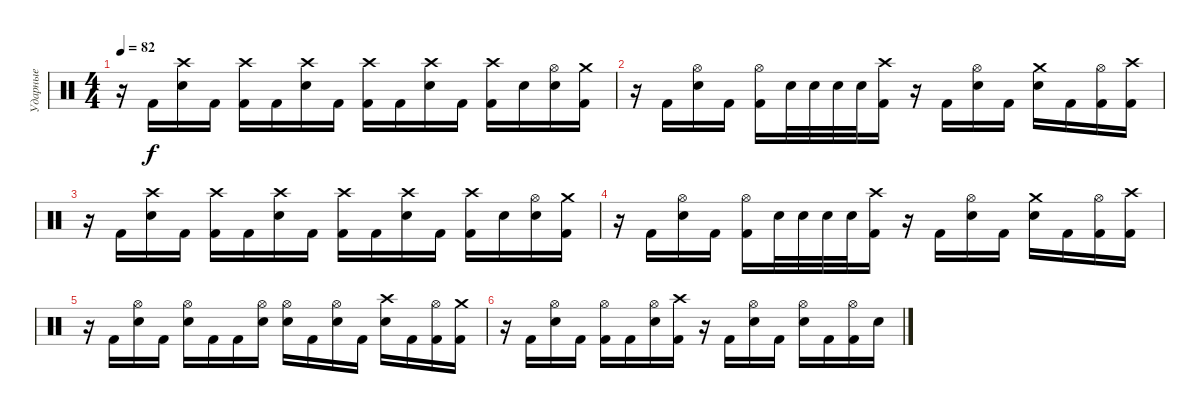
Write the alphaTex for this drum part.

\track ("Ударные" "Ударные") {instrument percussion}
\staff {score}
\articulation defaults
\ts (4 4)
\tempo 82
\clef neutral
\ks c
r.16{dy f} "Kick (hit) 2".16 ("Crash high (hit)" "Electric Snare (hit)").16 "Kick (hit) 2".16 ("Crash high (hit)" "Kick (hit) 2").16 "Kick (hit) 2".16 ("Crash high (hit)" "Electric Snare (hit)").16 "Kick (hit) 2".16 ("Crash high (hit)" "Kick (hit) 2").16 "Kick (hit) 2".16 ("Crash high (hit)" "Electric Snare (hit)").16 "Kick (hit) 2".16 ("Crash high (hit)" "Kick (hit) 2").16 "Electric Snare (hit)".16 ("Hi-Hat (open)" "Electric Snare (hit)").16 ("Crash medium (hit)" "Kick (hit) 2").16 |
r.16 "Kick (hit) 2".16 ("Hi-Hat (open)" "Electric Snare (hit)").16 "Kick (hit) 2".16 ("Hi-Hat (open)" "Kick (hit) 2").16 "Electric Snare (hit)".32 "Electric Snare (hit)".32 "Electric Snare (hit)".32 "Electric Snare (hit)".32 ("Crash high (hit)" "Kick (hit) 2").16 r.16 "Kick (hit) 2".16 ("Hi-Hat (open)" "Electric Snare (hit)").16 "Kick (hit) 2".16 ("Crash medium (hit)" "Electric Snare (hit)").16 "Kick (hit) 2".16 ("Hi-Hat (open)" "Kick (hit) 2").16 ("Crash high (hit)" "Kick (hit) 2").16 |
r.16 "Kick (hit) 2".16 ("Crash high (hit)" "Electric Snare (hit)").16 "Kick (hit) 2".16 ("Crash high (hit)" "Kick (hit) 2").16 "Kick (hit) 2".16 ("Crash high (hit)" "Electric Snare (hit)").16 "Kick (hit) 2".16 ("Crash high (hit)" "Kick (hit) 2").16 "Kick (hit) 2".16 ("Crash high (hit)" "Electric Snare (hit)").16 "Kick (hit) 2".16 ("Crash high (hit)" "Kick (hit) 2").16 "Electric Snare (hit)".16 ("Hi-Hat (open)" "Electric Snare (hit)").16 ("Crash medium (hit)" "Kick (hit) 2").16 |
r.16 "Kick (hit) 2".16 ("Hi-Hat (open)" "Electric Snare (hit)").16 "Kick (hit) 2".16 ("Hi-Hat (open)" "Kick (hit) 2").16 "Electric Snare (hit)".32 "Electric Snare (hit)".32 "Electric Snare (hit)".32 "Electric Snare (hit)".32 ("Crash high (hit)" "Kick (hit) 2").16 r.16 "Kick (hit) 2".16 ("Hi-Hat (open)" "Electric Snare (hit)").16 "Kick (hit) 2".16 ("Crash medium (hit)" "Electric Snare (hit)").16 "Kick (hit) 2".16 ("Hi-Hat (open)" "Kick (hit) 2").16 ("Crash high (hit)" "Kick (hit) 2").16 |
r.16 "Kick (hit) 2".16 ("Hi-Hat (open)" "Electric Snare (hit)").16 "Kick (hit) 2".16 ("Hi-Hat (open)" "Electric Snare (hit)").16 "Kick (hit) 2".16 "Kick (hit) 2".16 ("Hi-Hat (open)" "Electric Snare (hit)").16 ("Hi-Hat (open)" "Electric Snare (hit)").16 "Kick (hit) 2".16 ("Hi-Hat (open)" "Electric Snare (hit)").16 "Kick (hit) 2".16 ("Crash high (hit)" "Electric Snare (hit)").16 "Kick (hit) 2".16 ("Hi-Hat (open)" "Kick (hit) 2").16 ("Crash medium (hit)" "Kick (hit) 2").16 |
r.16 "Kick (hit) 2".16 ("Hi-Hat (open)" "Electric Snare (hit)").16 "Kick (hit) 2".16 ("Hi-Hat (open)" "Kick (hit) 2").16 "Kick (hit) 2".16 ("Hi-Hat (open)" "Electric Snare (hit)").16 ("Crash high (hit)" "Kick (hit) 2").16 r.16 "Kick (hit) 2".16 ("Hi-Hat (open)" "Electric Snare (hit)").16 "Kick (hit) 2".16 ("Hi-Hat (open)" "Electric Snare (hit)").16 "Kick (hit) 2".16 ("Hi-Hat (open)" "Kick (hit) 2").16 "Electric Snare (hit)".16
